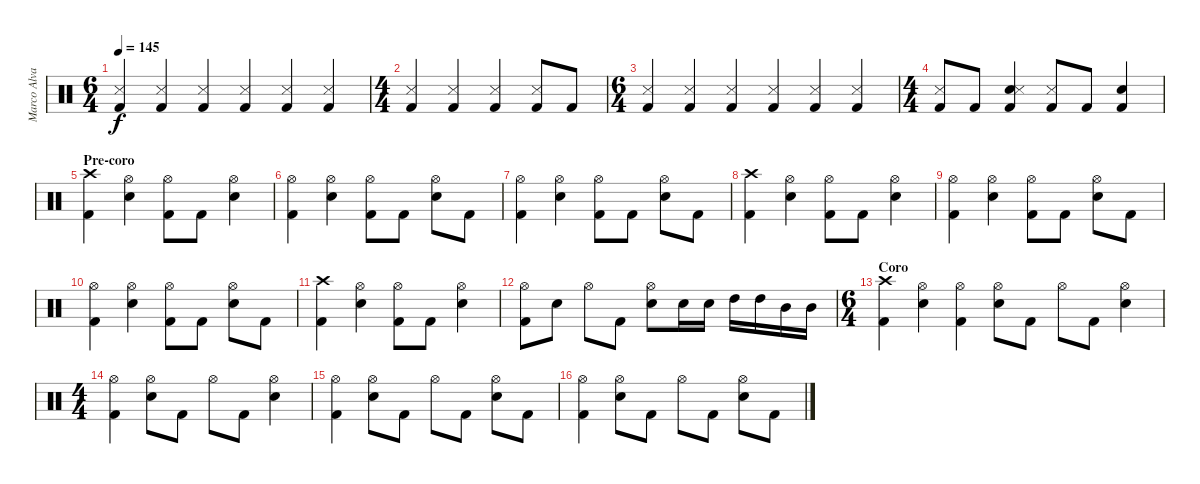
\track ("Marco Alvarez" "Marco Alva") {instrument percussion}
\staff {score}
\articulation defaults
\ts (6 4)
\tempo 145
\clef neutral
\ks c
("Kick (hit) 2" "Snare (side stick) 3").4{dy f} ("Kick (hit) 2" "Snare (side stick) 3").4 ("Kick (hit) 2" "Snare (side stick) 3").4 ("Kick (hit) 2" "Snare (side stick) 3").4 ("Kick (hit) 2" "Snare (side stick) 3").4 ("Kick (hit) 2" "Snare (side stick) 3").4 |
\ts (4 4)
("Kick (hit) 2" "Snare (side stick) 3").4 ("Kick (hit) 2" "Snare (side stick) 3").4 ("Kick (hit) 2" "Snare (side stick) 3").4 ("Kick (hit) 2" "Snare (side stick) 3").8 "Kick (hit) 2".8 |
\ts (6 4)
("Kick (hit) 2" "Snare (side stick) 3").4 ("Kick (hit) 2" "Snare (side stick) 3").4 ("Kick (hit) 2" "Snare (side stick) 3").4 ("Kick (hit) 2" "Snare (side stick) 3").4 ("Kick (hit) 2" "Snare (side stick) 3").4 ("Kick (hit) 2" "Snare (side stick) 3").4 |
\ts (4 4)
("Kick (hit) 2" "Snare (side stick) 3").8 "Kick (hit) 2".8 ("Kick (hit) 2" "Electric Snare (hit)" "Snare (side stick) 3").4 ("Kick (hit) 2" "Snare (side stick) 3").8 "Kick (hit) 2".8 ("Kick (hit) 2" "Electric Snare (hit)").4 |
\section ("" "Pre-coro")
("Kick (hit) 2" "Crash high (hit)").4 ("Electric Snare (hit)" "Hi-Hat (open)").4 ("Kick (hit) 2" "Hi-Hat (open)").8 "Kick (hit) 2".8 ("Electric Snare (hit)" "Hi-Hat (open)").4 |
("Kick (hit) 2" "Hi-Hat (open)").4 ("Electric Snare (hit)" "Hi-Hat (open)").4 ("Kick (hit) 2" "Hi-Hat (open)").8 "Kick (hit) 2".8 ("Electric Snare (hit)" "Hi-Hat (open)").8 "Kick (hit) 2".8 |
("Kick (hit) 2" "Hi-Hat (open)").4 ("Electric Snare (hit)" "Hi-Hat (open)").4 ("Kick (hit) 2" "Hi-Hat (open)").8 "Kick (hit) 2".8 ("Electric Snare (hit)" "Hi-Hat (open)").8 "Kick (hit) 2".8 |
("Kick (hit) 2" "Crash high (hit)").4 ("Electric Snare (hit)" "Hi-Hat (open)").4 ("Kick (hit) 2" "Hi-Hat (open)").8 "Kick (hit) 2".8 ("Electric Snare (hit)" "Hi-Hat (open)").4 |
("Kick (hit) 2" "Hi-Hat (open)").4 ("Electric Snare (hit)" "Hi-Hat (open)").4 ("Kick (hit) 2" "Hi-Hat (open)").8 "Kick (hit) 2".8 ("Electric Snare (hit)" "Hi-Hat (open)").8 "Kick (hit) 2".8 |
("Kick (hit) 2" "Hi-Hat (open)").4 ("Electric Snare (hit)" "Hi-Hat (open)").4 ("Kick (hit) 2" "Hi-Hat (open)").8 "Kick (hit) 2".8 ("Electric Snare (hit)" "Hi-Hat (open)").8 "Kick (hit) 2".8 |
("Kick (hit) 2" "Crash high (hit)").4 ("Electric Snare (hit)" "Hi-Hat (open)").4 ("Kick (hit) 2" "Hi-Hat (open)").8 "Kick (hit) 2".8 ("Electric Snare (hit)" "Hi-Hat (open)").4 |
("Kick (hit) 2" "Hi-Hat (open)").8 "Electric Snare (hit)".8 "Hi-Hat (open)".8 "Kick (hit) 2".8 ("Electric Snare (hit)" "Hi-Hat (open)").8 "Electric Snare (hit)".16 "Electric Snare (hit)".16 "High Tom (hit)".16 "High Tom (hit)".16 "Mid Tom (hit)".16 "Mid Tom (hit)".16 |
\ts (6 4)
\section ("" "Coro")
("Kick (hit) 2" "Crash high (hit)").4 ("Electric Snare (hit)" "Hi-Hat (open)").4 ("Kick (hit) 2" "Hi-Hat (open)").4 ("Electric Snare (hit)" "Hi-Hat (open)").8 "Kick (hit) 2".8 "Hi-Hat (open)".8 "Kick (hit) 2".8 ("Electric Snare (hit)" "Hi-Hat (open)").4 |
\ts (4 4)
("Kick (hit) 2" "Hi-Hat (open)").4 ("Electric Snare (hit)" "Hi-Hat (open)").8 "Kick (hit) 2".8 "Hi-Hat (open)".8 "Kick (hit) 2".8 ("Electric Snare (hit)" "Hi-Hat (open)").4 |
("Kick (hit) 2" "Hi-Hat (open)").4 ("Electric Snare (hit)" "Hi-Hat (open)").8 "Kick (hit) 2".8 "Hi-Hat (open)".8 "Kick (hit) 2".8 ("Electric Snare (hit)" "Hi-Hat (open)").8 "Kick (hit) 2".8 |
("Kick (hit) 2" "Hi-Hat (open)").4 ("Electric Snare (hit)" "Hi-Hat (open)").8 "Kick (hit) 2".8 "Hi-Hat (open)".8 "Kick (hit) 2".8 ("Electric Snare (hit)" "Hi-Hat (open)").8 "Kick (hit) 2".8
